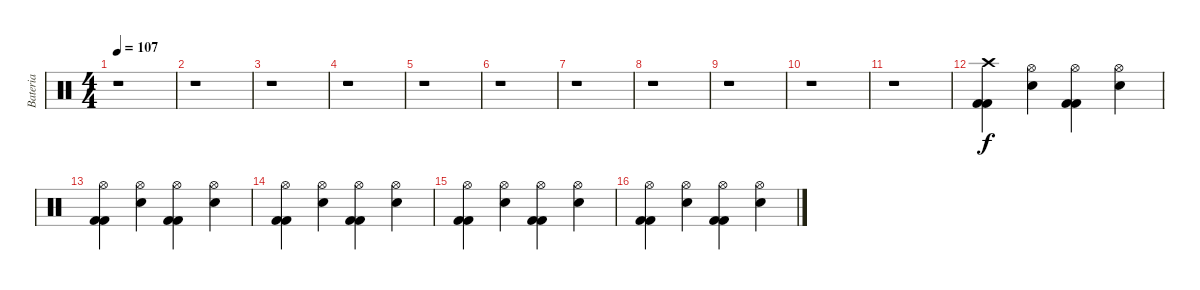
\track ("Bateria" "Bateria") {instrument percussion}
\staff {score}
\articulation defaults
\ts (4 4)
\tempo 107
\clef neutral
\ks c
r.1{dy f} |
r.1 |
r.1 |
r.1 |
r.1 |
r.1 |
r.1 |
r.1 |
r.1 |
r.1 |
r.1 |
("Kick (hit) 2" "Kick (hit) 2" "Crash high (hit)").4 ("Snare (hit) 2" "Hi-Hat (open)").4 ("Kick (hit) 2" "Kick (hit) 2" "Hi-Hat (open)").4 ("Snare (hit) 2" "Hi-Hat (open)").4 |
("Kick (hit) 2" "Kick (hit) 2" "Hi-Hat (open)").4 ("Snare (hit) 2" "Hi-Hat (open)").4 ("Kick (hit) 2" "Kick (hit) 2" "Hi-Hat (open)").4 ("Snare (hit) 2" "Hi-Hat (open)").4 |
("Kick (hit) 2" "Kick (hit) 2" "Hi-Hat (open)").4 ("Snare (hit) 2" "Hi-Hat (open)").4 ("Kick (hit) 2" "Kick (hit) 2" "Hi-Hat (open)").4 ("Snare (hit) 2" "Hi-Hat (open)").4 |
("Kick (hit) 2" "Kick (hit) 2" "Hi-Hat (open)").4 ("Snare (hit) 2" "Hi-Hat (open)").4 ("Kick (hit) 2" "Kick (hit) 2" "Hi-Hat (open)").4 ("Snare (hit) 2" "Hi-Hat (open)").4 |
("Kick (hit) 2" "Kick (hit) 2" "Hi-Hat (open)").4 ("Snare (hit) 2" "Hi-Hat (open)").4 ("Kick (hit) 2" "Kick (hit) 2" "Hi-Hat (open)").4 ("Snare (hit) 2" "Hi-Hat (open)").4
